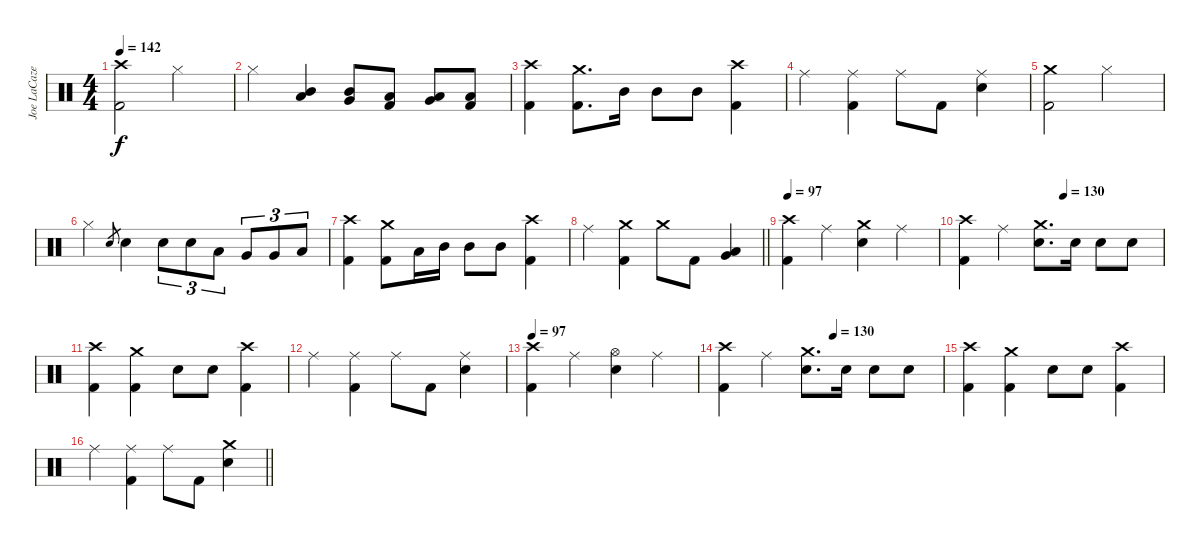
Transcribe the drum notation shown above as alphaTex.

\track ("Joe LaCaze" "Joe LaCaze") {instrument percussion}
\staff {score}
\articulation defaults
\ts (4 4)
\section ("" "")
\tempo 142
\clef neutral
\ks c
("Crash high (hit)" "Kick (hit) 2").2{dy f} "Hi-Hat (closed)".2 |
"Hi-Hat (closed)".4 ("Mid Tom (hit)" "Low Tom (hit)").4 ("Mid Tom (hit)" "Very Low Tom (hit)").8 ("Low Floor Tom (hit)" "Kick (hit) 2").8 ("Low Tom (hit)" "Very Low Tom (hit)").8 ("Low Floor Tom (hit)" "Kick (hit) 2").8 |
("Crash high (hit)" "Kick (hit) 2").4 ("Crash medium (hit)" "Kick (hit) 2").8{d} "Mid Tom (hit)".16 "Mid Tom (hit)".8 "Mid Tom (hit)".8 ("Crash high (hit)" "Kick (hit) 2").4 |
"Ride (middle)".4 ("Ride (middle)" "Kick (hit) 2").4 "Ride (middle)".8 "Kick (hit) 2".8 ("Ride (middle)" "Electric Snare (hit)").4 |
("Crash medium (hit)" "Kick (hit) 2").2 "Hi-Hat (closed)".2 |
"Hi-Hat (closed)".4 "Electric Snare (hit)".8{gr} "Electric Snare (hit)".4 "Electric Snare (hit)".8{tu (3 2)} "Electric Snare (hit)".8{tu (3 2)} "Low Tom (hit)".8{tu (3 2)} "Very Low Tom (hit)".8{tu (3 2)} "Very Low Tom (hit)".8{tu (3 2)} "Low Floor Tom (hit)".8{tu (3 2)} |
("Crash high (hit)" "Kick (hit) 2").4 ("Crash medium (hit)" "Kick (hit) 2").8 "Low Tom (hit)".16 "Mid Tom (hit)".16 "Mid Tom (hit)".8 "Mid Tom (hit)".8 ("Crash high (hit)" "Kick (hit) 2").4 |
\barLineRight lightlight "Ride (middle)".4
("Crash medium (hit)" "Kick (hit) 2").4 "Crash medium (hit)".8 "Kick (hit) 2".8 ("Very Low Tom (hit)" "Low Floor Tom (hit)").4 |
\section ("" "")
\tempo 97
("Crash high (hit)" "Kick (hit) 2").4 "Ride (middle)".4 ("Crash medium (hit)" "Electric Snare (hit)").4 "Ride (middle)".4 |
\tempo (130 0.5)
("Crash high (hit)" "Kick (hit) 2").4 "Ride (middle)".4 ("Crash medium (hit)" "Electric Snare (hit)").8{d} "Electric Snare (hit)".16 "Electric Snare (hit)".8 "Electric Snare (hit)".8 |
("Crash high (hit)" "Kick (hit) 2").4 ("Crash medium (hit)" "Kick (hit) 2").4 "Electric Snare (hit)".8 "Electric Snare (hit)".8 ("Crash high (hit)" "Kick (hit) 2").4 |
"Ride (middle)".4 ("Ride (middle)" "Kick (hit) 2").4 "Ride (middle)".8 "Kick (hit) 2".8 ("Ride (middle)" "Electric Snare (hit)").4 |
\tempo 97
("Crash high (hit)" "Kick (hit) 2").4 "Ride (middle)".4 ("Hi-Hat (open)" "Electric Snare (hit)").4 "Ride (middle)".4 |
\tempo (130 0.5)
("Crash high (hit)" "Kick (hit) 2").4 "Ride (middle)".4 ("Crash medium (hit)" "Electric Snare (hit)").8{d} "Electric Snare (hit)".16 "Electric Snare (hit)".8 "Electric Snare (hit)".8 |
("Crash high (hit)" "Kick (hit) 2").4 ("Crash medium (hit)" "Kick (hit) 2").4 "Electric Snare (hit)".8 "Electric Snare (hit)".8 ("Crash high (hit)" "Kick (hit) 2").4 |
\barLineRight lightlight "Ride (middle)".4
("Ride (middle)" "Kick (hit) 2").4 "Ride (middle)".8 "Kick (hit) 2".8 ("Crash medium (hit)" "Electric Snare (hit)").4
